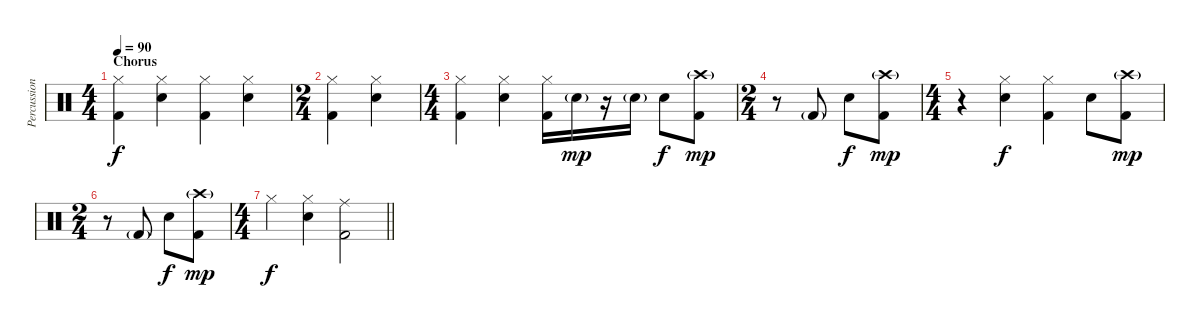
\track ("Percussion" "Percussion") {instrument percussion}
\staff {score}
\articulation defaults
\ts (4 4)
\section ("" "Chorus")
\tempo 90
\clef neutral
\ks c
("Hi-Hat (closed)" "Kick (hit) 2").4{dy f} ("Hi-Hat (closed)" "Snare (hit) 2").4 ("Hi-Hat (closed)" "Kick (hit) 2").4 ("Hi-Hat (closed)" "Snare (hit) 2").4 |
\ts (2 4)
("Hi-Hat (closed)" "Kick (hit) 2").4 ("Hi-Hat (closed)" "Snare (hit) 2").4 |
\ts (4 4)
("Hi-Hat (closed)" "Kick (hit) 2").4 ("Hi-Hat (closed)" "Snare (hit) 2").4 ("Hi-Hat (closed)" "Kick (hit) 2").16 "Snare (hit) 2"{g}.16{dy mp} r.16 "Snare (hit) 2"{g}.16 "Snare (hit) 2".8{dy f} ("Crash high (hit)"{g} "Kick (hit) 2").8{dy mp} |
\ts (2 4)
r.8 "Kick (hit) 2"{g}.8 "Snare (hit) 2".8{dy f} ("Crash high (hit)"{g} "Kick (hit) 2").8{dy mp} |
\ts (4 4)
r.4 ("Hi-Hat (closed)" "Snare (hit) 2").4{dy f} ("Hi-Hat (closed)" "Kick (hit) 2").4 "Snare (hit) 2".8 ("Crash high (hit)"{g} "Kick (hit) 2").8{dy mp} |
\ts (2 4)
r.8 "Kick (hit) 2"{g}.8 "Snare (hit) 2".8{dy f} ("Crash high (hit)"{g} "Kick (hit) 2").8{dy mp} |
\ts (4 4)
\barLineRight lightlight "Hi-Hat (closed)".4{dy f}
("Hi-Hat (closed)" "Snare (hit) 2").4 ("Ride (middle)" "Kick (hit) 2").2
